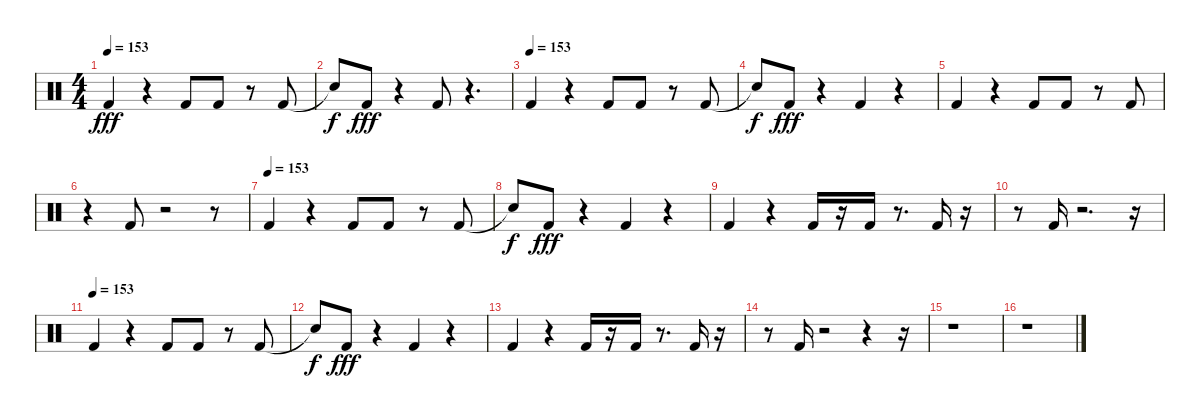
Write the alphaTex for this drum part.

\track "" {instrument percussion}
\staff {score}
\articulation defaults
\ts (4 4)
\tempo 153
\clef neutral
\ks c "Kick (hit) 2".4{dy fff}
r.4 "Kick (hit) 2".8 "Kick (hit) 2".8 r.8 "Kick (hit) 2".8 |
"Snare (hit)"{t}.8{dy f} "Kick (hit) 2".8{dy fff} r.4 "Kick (hit) 2".8 r.4{d} |
\tempo (153)
"Kick (hit) 2".4 r.4 "Kick (hit) 2".8 "Kick (hit) 2".8 r.8 "Kick (hit) 2".8 |
"Snare (hit)"{t}.8{dy f} "Kick (hit) 2".8{dy fff} r.4 "Kick (hit) 2".4 r.4 |
"Kick (hit) 2".4 r.4 "Kick (hit) 2".8 "Kick (hit) 2".8 r.8 "Kick (hit) 2".8 |
r.4 "Kick (hit) 2".8 r.2 r.8 |
\tempo (153)
"Kick (hit) 2".4 r.4 "Kick (hit) 2".8 "Kick (hit) 2".8 r.8 "Kick (hit) 2".8 |
"Snare (hit)"{t}.8{dy f} "Kick (hit) 2".8{dy fff} r.4 "Kick (hit) 2".4 r.4 |
"Kick (hit) 2".4 r.4 "Kick (hit) 2".16 r.16 "Kick (hit) 2".16 r.8{d} "Kick (hit) 2".16 r.16 |
r.8 "Kick (hit) 2".16 r.2{d} r.16 |
\tempo (153)
"Kick (hit) 2".4 r.4 "Kick (hit) 2".8 "Kick (hit) 2".8 r.8 "Kick (hit) 2".8 |
"Snare (hit)"{t}.8{dy f} "Kick (hit) 2".8{dy fff} r.4 "Kick (hit) 2".4 r.4 |
"Kick (hit) 2".4 r.4 "Kick (hit) 2".16 r.16 "Kick (hit) 2".16 r.8{d} "Kick (hit) 2".16 r.16 |
r.8 "Kick (hit) 2".16 r.2 r.4 r.16 |
r.1 |
r.1
